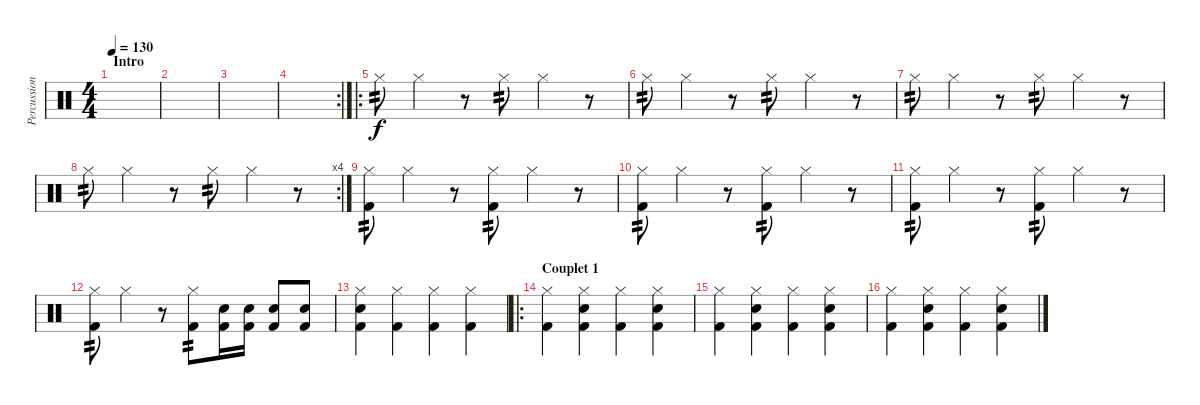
\track ("Percussions" "Percussion") {instrument percussion}
\staff {score}
\articulation defaults
\ts (4 4)
\section ("" "Intro")
\tempo 130
\clef neutral
\ks c
|
|
|
\rc 2
|
\ro "Hi-Hat (closed)".8{tp 2} "Hi-Hat (closed)".4
r.8 "Hi-Hat (closed)".8{tp 2} "Hi-Hat (closed)".4 r.8 |
"Hi-Hat (closed)".8{tp 2} "Hi-Hat (closed)".4 r.8 "Hi-Hat (closed)".8{tp 2} "Hi-Hat (closed)".4 r.8 |
"Hi-Hat (closed)".8{tp 2} "Hi-Hat (closed)".4 r.8 "Hi-Hat (closed)".8{tp 2} "Hi-Hat (closed)".4 r.8 |
\rc 4 "Hi-Hat (closed)".8{tp 2} "Hi-Hat (closed)".4
r.8 "Hi-Hat (closed)".8{tp 2} "Hi-Hat (closed)".4 r.8 |
("Hi-Hat (closed)" "Kick (hit) 2").8{tp 2} "Hi-Hat (closed)".4 r.8 ("Hi-Hat (closed)" "Kick (hit) 2").8{tp 2} "Hi-Hat (closed)".4 r.8 |
("Hi-Hat (closed)" "Kick (hit) 2").8{tp 2} "Hi-Hat (closed)".4 r.8 ("Hi-Hat (closed)" "Kick (hit) 2").8{tp 2} "Hi-Hat (closed)".4 r.8 |
("Hi-Hat (closed)" "Kick (hit) 2").8{tp 2} "Hi-Hat (closed)".4 r.8 ("Hi-Hat (closed)" "Kick (hit) 2").8{tp 2} "Hi-Hat (closed)".4 r.8 |
("Hi-Hat (closed)" "Kick (hit) 2").8{tp 2} "Hi-Hat (closed)".4 r.8 ("Hi-Hat (closed)" "Kick (hit) 2").8{tp 2} ("Snare (hit) 2" "Kick (hit) 2").16 ("Snare (hit) 2" "Kick (hit) 2").16 ("Snare (hit) 2" "Kick (hit) 2").8 ("Snare (hit) 2" "Kick (hit) 2").8 |
("Hi-Hat (closed)" "Kick (hit) 2" "Snare (hit) 2").4 ("Hi-Hat (closed)" "Kick (hit) 2").4 ("Hi-Hat (closed)" "Kick (hit) 2").4 ("Hi-Hat (closed)" "Kick (hit) 2").4 |
\ro
\section ("" "Couplet 1")
("Hi-Hat (closed)" "Kick (hit) 2").4 ("Hi-Hat (closed)" "Kick (hit) 2" "Snare (hit) 2").4 ("Hi-Hat (closed)" "Kick (hit) 2").4 ("Hi-Hat (closed)" "Kick (hit) 2" "Snare (hit) 2").4 |
("Hi-Hat (closed)" "Kick (hit) 2").4 ("Hi-Hat (closed)" "Kick (hit) 2" "Snare (hit) 2").4 ("Hi-Hat (closed)" "Kick (hit) 2").4 ("Hi-Hat (closed)" "Kick (hit) 2" "Snare (hit) 2").4 |
("Hi-Hat (closed)" "Kick (hit) 2").4 ("Hi-Hat (closed)" "Kick (hit) 2" "Snare (hit) 2").4 ("Hi-Hat (closed)" "Kick (hit) 2").4 ("Hi-Hat (closed)" "Kick (hit) 2" "Snare (hit) 2").4
